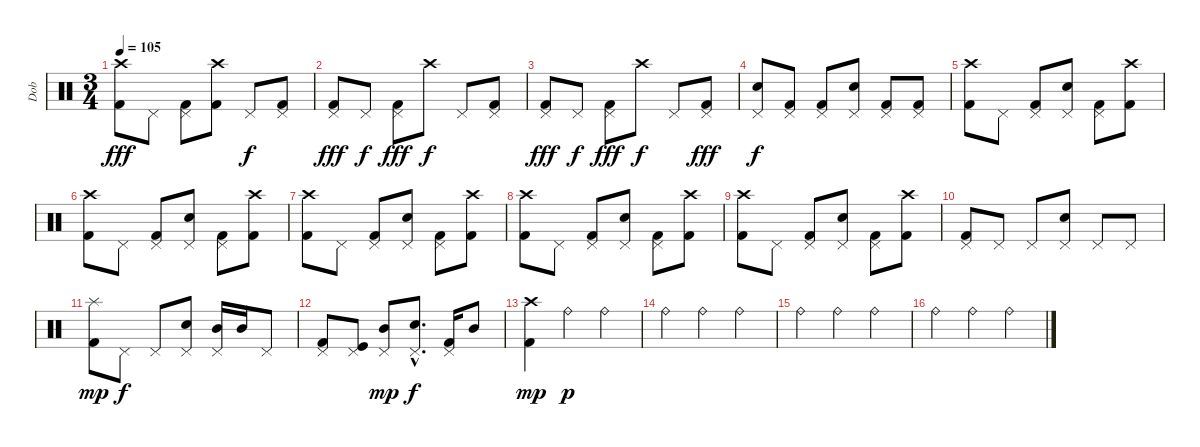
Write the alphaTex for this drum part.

\track ("Dob" "Dob") {instrument percussion}
\staff {score}
\articulation defaults
\ts (3 4)
\tempo 105
\clef neutral
\ks c
("Kick (hit) 2" "Crash high (hit)").8{dy fff} "Pedal Hi-Hat (hit)".8 ("Kick (hit) 2" "Pedal Hi-Hat (hit)").8 ("Kick (hit) 2" "Crash high (hit)").8 "Pedal Hi-Hat (hit)".8{dy f} ("Kick (hit) 2" "Pedal Hi-Hat (hit)").8 |
("Kick (hit) 2" "Pedal Hi-Hat (hit)").8{dy fff} "Pedal Hi-Hat (hit)".8{dy f} ("Kick (hit) 2" "Pedal Hi-Hat (hit)").8{dy fff} "Crash high (hit)".8{dy f} "Pedal Hi-Hat (hit)".8 ("Kick (hit) 2" "Pedal Hi-Hat (hit)").8 |
("Kick (hit) 2" "Pedal Hi-Hat (hit)").8{dy fff} "Pedal Hi-Hat (hit)".8{dy f} ("Kick (hit) 2" "Pedal Hi-Hat (hit)").8{dy fff} "Crash high (hit)".8{dy f} "Pedal Hi-Hat (hit)".8 ("Kick (hit) 2" "Pedal Hi-Hat (hit)").8{dy fff} |
("Electric Snare (hit)" "Pedal Hi-Hat (hit)").8{dy f} ("Kick (hit) 2" "Pedal Hi-Hat (hit)").8 ("Kick (hit) 2" "Pedal Hi-Hat (hit)").8 ("Electric Snare (hit)" "Pedal Hi-Hat (hit)").8 ("Kick (hit) 2" "Pedal Hi-Hat (hit)").8 ("Kick (hit) 2" "Pedal Hi-Hat (hit)").8 |
("Kick (hit) 2" "Crash high (hit)").8 "Pedal Hi-Hat (hit)".8 ("Kick (hit) 2" "Pedal Hi-Hat (hit)").8 ("Electric Snare (hit)" "Pedal Hi-Hat (hit)").8 ("Kick (hit) 2" "Pedal Hi-Hat (hit)").8 ("Kick (hit) 2" "Crash high (hit)").8 |
("Kick (hit) 2" "Crash high (hit)").8 "Pedal Hi-Hat (hit)".8 ("Kick (hit) 2" "Pedal Hi-Hat (hit)").8 ("Electric Snare (hit)" "Pedal Hi-Hat (hit)").8 ("Kick (hit) 2" "Pedal Hi-Hat (hit)").8 ("Kick (hit) 2" "Crash high (hit)").8 |
("Kick (hit) 2" "Crash high (hit)").8 "Pedal Hi-Hat (hit)".8 ("Kick (hit) 2" "Pedal Hi-Hat (hit)").8 ("Electric Snare (hit)" "Pedal Hi-Hat (hit)").8 ("Kick (hit) 2" "Pedal Hi-Hat (hit)").8 ("Kick (hit) 2" "Crash high (hit)").8 |
("Kick (hit) 2" "Crash high (hit)").8 "Pedal Hi-Hat (hit)".8 ("Kick (hit) 2" "Pedal Hi-Hat (hit)").8 ("Electric Snare (hit)" "Pedal Hi-Hat (hit)").8 ("Kick (hit) 2" "Pedal Hi-Hat (hit)").8 ("Kick (hit) 2" "Crash high (hit)").8 |
("Kick (hit) 2" "Crash high (hit)").8 "Pedal Hi-Hat (hit)".8 ("Kick (hit) 2" "Pedal Hi-Hat (hit)").8 ("Electric Snare (hit)" "Pedal Hi-Hat (hit)").8 ("Kick (hit) 2" "Pedal Hi-Hat (hit)").8 ("Kick (hit) 2" "Crash high (hit)").8 |
("Kick (hit) 2" "Pedal Hi-Hat (hit)").8 "Pedal Hi-Hat (hit)".8 "Pedal Hi-Hat (hit)".8 ("Electric Snare (hit)" "Pedal Hi-Hat (hit)").8 "Pedal Hi-Hat (hit)".8 "Pedal Hi-Hat (hit)".8 |
("Kick (hit) 2" "Splash (hit)").8{dy mp} "Pedal Hi-Hat (hit)".8{dy f} "Pedal Hi-Hat (hit)".8 ("Electric Snare (hit)" "Pedal Hi-Hat (hit)").8 ("Mid Tom (hit)" "Pedal Hi-Hat (hit)").16 "Mid Tom (hit)".16 "Pedal Hi-Hat (hit)".8 |
("Kick (hit) 2" "Pedal Hi-Hat (hit)").8 ("Kick (hit)" "Pedal Hi-Hat (hit)").8 ("Mid Tom (hit)" "Pedal Hi-Hat (hit)").8{dy mp} ("Electric Snare (hit)"{hac} "Pedal Hi-Hat (hit)"{hac}).8{d dy f} ("Kick (hit) 2" "Pedal Hi-Hat (hit)").16 "Mid Tom (hit)".8 |
("Kick (hit) 2" "Crash high (hit)").4{dy mp} "Ride (bell)".4{dy p} "Ride (bell)".4 |
"Ride (bell)".4 "Ride (bell)".4 "Ride (bell)".4 |
"Ride (bell)".4 "Ride (bell)".4 "Ride (bell)".4 |
"Ride (bell)".4 "Ride (bell)".4 "Ride (bell)".4
